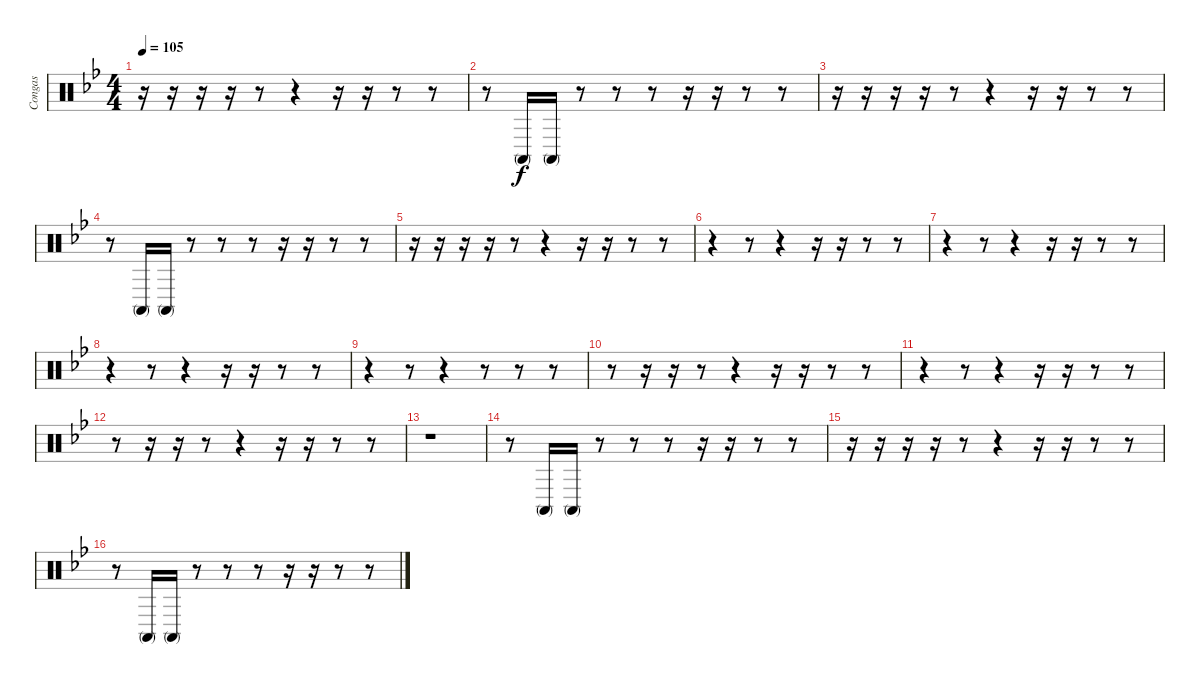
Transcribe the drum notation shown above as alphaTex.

\track ("Congas" "Congas") {instrument percussion}
\staff {score}
\articulation defaults
\ts (4 4)
\tempo 105
\clef neutral
\ks gminor
r.16{dy f} r.16 r.16 r.16 r.8 r.4 r.16 r.16 r.8 r.8 |
r.8 "Conga high (mute)".16 "Conga high (mute)".16 r.8 r.8 r.8 r.16 r.16 r.8 r.8 |
r.16 r.16 r.16 r.16 r.8 r.4 r.16 r.16 r.8 r.8 |
r.8 "Conga high (mute)".16 "Conga high (mute)".16 r.8 r.8 r.8 r.16 r.16 r.8 r.8 |
r.16 r.16 r.16 r.16 r.8 r.4 r.16 r.16 r.8 r.8 |
r.4 r.8 r.4 r.16 r.16 r.8 r.8 |
r.4 r.8 r.4 r.16 r.16 r.8 r.8 |
r.4 r.8 r.4 r.16 r.16 r.8 r.8 |
r.4 r.8 r.4 r.8 r.8 r.8 |
r.8 r.16 r.16 r.8 r.4 r.16 r.16 r.8 r.8 |
r.4 r.8 r.4 r.16 r.16 r.8 r.8 |
r.8 r.16 r.16 r.8 r.4 r.16 r.16 r.8 r.8 |
r.1 |
r.8 "Conga high (mute)".16 "Conga high (mute)".16 r.8 r.8 r.8 r.16 r.16 r.8 r.8 |
r.16 r.16 r.16 r.16 r.8 r.4 r.16 r.16 r.8 r.8 |
r.8 "Conga high (mute)".16 "Conga high (mute)".16 r.8 r.8 r.8 r.16 r.16 r.8 r.8
